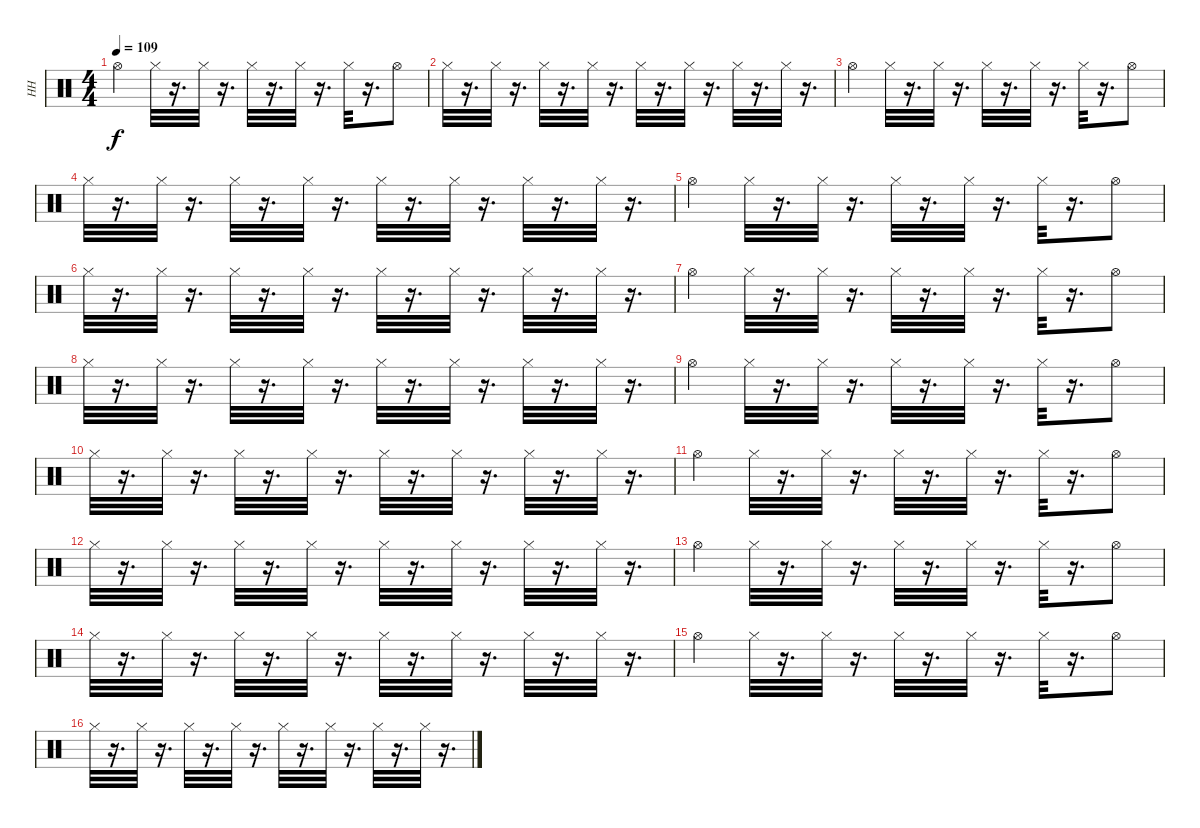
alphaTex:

\track ("HH" "HH") {instrument percussion}
\staff {score}
\articulation defaults
\ts (4 4)
\tempo 109
\clef neutral
\ks c "Hi-Hat (open)".4{dy f} "Hi-Hat (closed)".32
r.16{d} "Hi-Hat (closed)".32 r.16{d} "Hi-Hat (closed)".32 r.16{d} "Hi-Hat (closed)".32 r.16{d} "Hi-Hat (closed)".32 r.16{d} "Hi-Hat (open)".8 |
"Hi-Hat (closed)".32 r.16{d} "Hi-Hat (closed)".32 r.16{d} "Hi-Hat (closed)".32 r.16{d} "Hi-Hat (closed)".32 r.16{d} "Hi-Hat (closed)".32 r.16{d} "Hi-Hat (closed)".32 r.16{d} "Hi-Hat (closed)".32 r.16{d} "Hi-Hat (closed)".32 r.16{d} |
"Hi-Hat (open)".4 "Hi-Hat (closed)".32 r.16{d} "Hi-Hat (closed)".32 r.16{d} "Hi-Hat (closed)".32 r.16{d} "Hi-Hat (closed)".32 r.16{d} "Hi-Hat (closed)".32 r.16{d} "Hi-Hat (open)".8 |
"Hi-Hat (closed)".32 r.16{d} "Hi-Hat (closed)".32 r.16{d} "Hi-Hat (closed)".32 r.16{d} "Hi-Hat (closed)".32 r.16{d} "Hi-Hat (closed)".32 r.16{d} "Hi-Hat (closed)".32 r.16{d} "Hi-Hat (closed)".32 r.16{d} "Hi-Hat (closed)".32 r.16{d} |
"Hi-Hat (open)".4 "Hi-Hat (closed)".32 r.16{d} "Hi-Hat (closed)".32 r.16{d} "Hi-Hat (closed)".32 r.16{d} "Hi-Hat (closed)".32 r.16{d} "Hi-Hat (closed)".32 r.16{d} "Hi-Hat (open)".8 |
"Hi-Hat (closed)".32 r.16{d} "Hi-Hat (closed)".32 r.16{d} "Hi-Hat (closed)".32 r.16{d} "Hi-Hat (closed)".32 r.16{d} "Hi-Hat (closed)".32 r.16{d} "Hi-Hat (closed)".32 r.16{d} "Hi-Hat (closed)".32 r.16{d} "Hi-Hat (closed)".32 r.16{d} |
"Hi-Hat (open)".4 "Hi-Hat (closed)".32 r.16{d} "Hi-Hat (closed)".32 r.16{d} "Hi-Hat (closed)".32 r.16{d} "Hi-Hat (closed)".32 r.16{d} "Hi-Hat (closed)".32 r.16{d} "Hi-Hat (open)".8 |
"Hi-Hat (closed)".32 r.16{d} "Hi-Hat (closed)".32 r.16{d} "Hi-Hat (closed)".32 r.16{d} "Hi-Hat (closed)".32 r.16{d} "Hi-Hat (closed)".32 r.16{d} "Hi-Hat (closed)".32 r.16{d} "Hi-Hat (closed)".32 r.16{d} "Hi-Hat (closed)".32 r.16{d} |
"Hi-Hat (open)".4 "Hi-Hat (closed)".32 r.16{d} "Hi-Hat (closed)".32 r.16{d} "Hi-Hat (closed)".32 r.16{d} "Hi-Hat (closed)".32 r.16{d} "Hi-Hat (closed)".32 r.16{d} "Hi-Hat (open)".8 |
"Hi-Hat (closed)".32 r.16{d} "Hi-Hat (closed)".32 r.16{d} "Hi-Hat (closed)".32 r.16{d} "Hi-Hat (closed)".32 r.16{d} "Hi-Hat (closed)".32 r.16{d} "Hi-Hat (closed)".32 r.16{d} "Hi-Hat (closed)".32 r.16{d} "Hi-Hat (closed)".32 r.16{d} |
"Hi-Hat (open)".4 "Hi-Hat (closed)".32 r.16{d} "Hi-Hat (closed)".32 r.16{d} "Hi-Hat (closed)".32 r.16{d} "Hi-Hat (closed)".32 r.16{d} "Hi-Hat (closed)".32 r.16{d} "Hi-Hat (open)".8 |
"Hi-Hat (closed)".32 r.16{d} "Hi-Hat (closed)".32 r.16{d} "Hi-Hat (closed)".32 r.16{d} "Hi-Hat (closed)".32 r.16{d} "Hi-Hat (closed)".32 r.16{d} "Hi-Hat (closed)".32 r.16{d} "Hi-Hat (closed)".32 r.16{d} "Hi-Hat (closed)".32 r.16{d} |
"Hi-Hat (open)".4 "Hi-Hat (closed)".32 r.16{d} "Hi-Hat (closed)".32 r.16{d} "Hi-Hat (closed)".32 r.16{d} "Hi-Hat (closed)".32 r.16{d} "Hi-Hat (closed)".32 r.16{d} "Hi-Hat (open)".8 |
"Hi-Hat (closed)".32 r.16{d} "Hi-Hat (closed)".32 r.16{d} "Hi-Hat (closed)".32 r.16{d} "Hi-Hat (closed)".32 r.16{d} "Hi-Hat (closed)".32 r.16{d} "Hi-Hat (closed)".32 r.16{d} "Hi-Hat (closed)".32 r.16{d} "Hi-Hat (closed)".32 r.16{d} |
"Hi-Hat (open)".4 "Hi-Hat (closed)".32 r.16{d} "Hi-Hat (closed)".32 r.16{d} "Hi-Hat (closed)".32 r.16{d} "Hi-Hat (closed)".32 r.16{d} "Hi-Hat (closed)".32 r.16{d} "Hi-Hat (open)".8 |
"Hi-Hat (closed)".32 r.16{d} "Hi-Hat (closed)".32 r.16{d} "Hi-Hat (closed)".32 r.16{d} "Hi-Hat (closed)".32 r.16{d} "Hi-Hat (closed)".32 r.16{d} "Hi-Hat (closed)".32 r.16{d} "Hi-Hat (closed)".32 r.16{d} "Hi-Hat (closed)".32 r.16{d}
